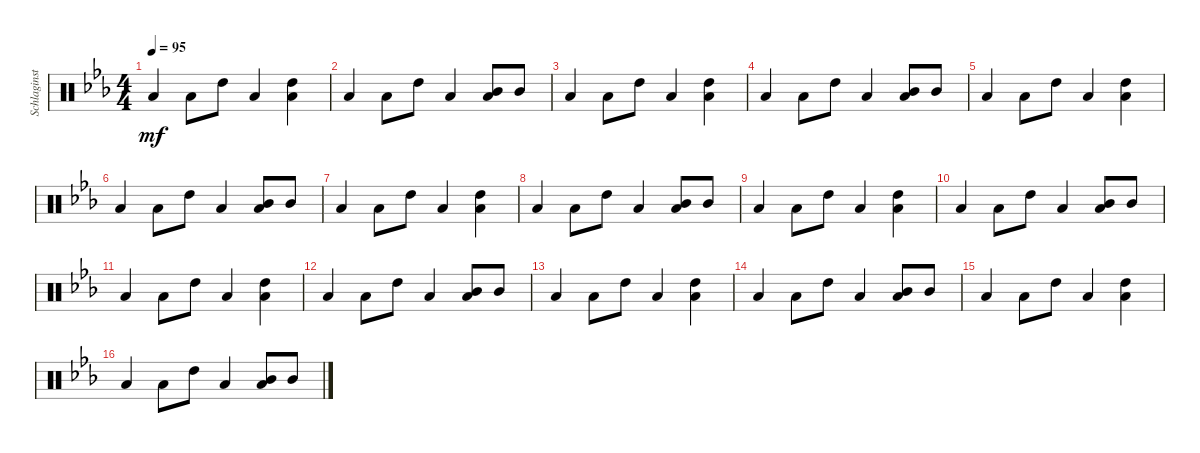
\track ("Schlaginstrumente - Auswahl" "Schlaginst") {instrument percussion}
\staff {score}
\articulation defaults
\ts (4 4)
\tempo 95
\clef neutral
\ks eb "Low Floor Tom (hit)".4{dy mf} "Low Floor Tom (hit)".8 "High Tom (hit)".8 "Low Floor Tom (hit)".4
("High Tom (hit)" "Low Floor Tom (hit)").4 |
"Low Floor Tom (hit)".4 "Low Floor Tom (hit)".8 "High Tom (hit)".8 "Low Floor Tom (hit)".4 ("Mid Tom (hit)" "Low Floor Tom (hit)").8 "Mid Tom (hit)".8 |
"Low Floor Tom (hit)".4 "Low Floor Tom (hit)".8 "High Tom (hit)".8 "Low Floor Tom (hit)".4 ("High Tom (hit)" "Low Floor Tom (hit)").4 |
"Low Floor Tom (hit)".4 "Low Floor Tom (hit)".8 "High Tom (hit)".8 "Low Floor Tom (hit)".4 ("Mid Tom (hit)" "Low Floor Tom (hit)").8 "Mid Tom (hit)".8 |
"Low Floor Tom (hit)".4 "Low Floor Tom (hit)".8 "High Tom (hit)".8 "Low Floor Tom (hit)".4 ("High Tom (hit)" "Low Floor Tom (hit)").4 |
"Low Floor Tom (hit)".4 "Low Floor Tom (hit)".8 "High Tom (hit)".8 "Low Floor Tom (hit)".4 ("Mid Tom (hit)" "Low Floor Tom (hit)").8 "Mid Tom (hit)".8 |
"Low Floor Tom (hit)".4 "Low Floor Tom (hit)".8 "High Tom (hit)".8 "Low Floor Tom (hit)".4 ("High Tom (hit)" "Low Floor Tom (hit)").4 |
"Low Floor Tom (hit)".4 "Low Floor Tom (hit)".8 "High Tom (hit)".8 "Low Floor Tom (hit)".4 ("Mid Tom (hit)" "Low Floor Tom (hit)").8 "Mid Tom (hit)".8 |
"Low Floor Tom (hit)".4 "Low Floor Tom (hit)".8 "High Tom (hit)".8 "Low Floor Tom (hit)".4 ("High Tom (hit)" "Low Floor Tom (hit)").4 |
"Low Floor Tom (hit)".4 "Low Floor Tom (hit)".8 "High Tom (hit)".8 "Low Floor Tom (hit)".4 ("Mid Tom (hit)" "Low Floor Tom (hit)").8 "Mid Tom (hit)".8 |
"Low Floor Tom (hit)".4 "Low Floor Tom (hit)".8 "High Tom (hit)".8 "Low Floor Tom (hit)".4 ("High Tom (hit)" "Low Floor Tom (hit)").4 |
"Low Floor Tom (hit)".4 "Low Floor Tom (hit)".8 "High Tom (hit)".8 "Low Floor Tom (hit)".4 ("Mid Tom (hit)" "Low Floor Tom (hit)").8 "Mid Tom (hit)".8 |
"Low Floor Tom (hit)".4 "Low Floor Tom (hit)".8 "High Tom (hit)".8 "Low Floor Tom (hit)".4 ("High Tom (hit)" "Low Floor Tom (hit)").4 |
"Low Floor Tom (hit)".4 "Low Floor Tom (hit)".8 "High Tom (hit)".8 "Low Floor Tom (hit)".4 ("Mid Tom (hit)" "Low Floor Tom (hit)").8 "Mid Tom (hit)".8 |
"Low Floor Tom (hit)".4 "Low Floor Tom (hit)".8 "High Tom (hit)".8 "Low Floor Tom (hit)".4 ("High Tom (hit)" "Low Floor Tom (hit)").4 |
"Low Floor Tom (hit)".4 "Low Floor Tom (hit)".8 "High Tom (hit)".8 "Low Floor Tom (hit)".4 ("Mid Tom (hit)" "Low Floor Tom (hit)").8 "Mid Tom (hit)".8
